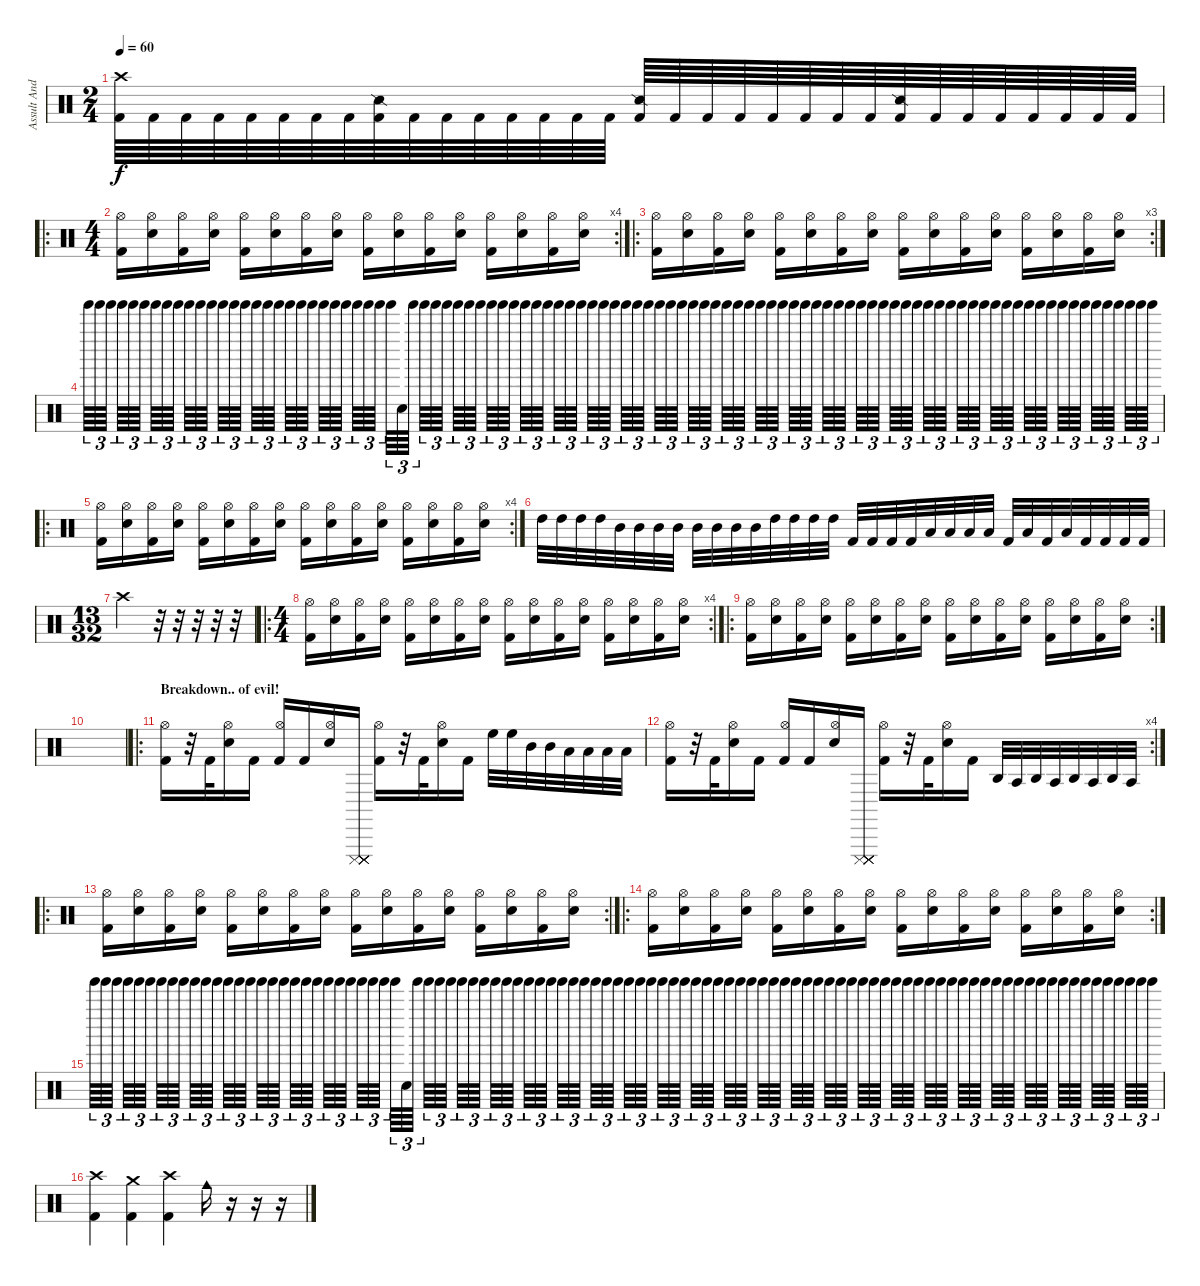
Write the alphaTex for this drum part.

\track ("Assult And Battery" "Assult And") {instrument percussion}
\staff {score}
\articulation defaults
\ts (2 4)
\tempo 60
\clef neutral
\ks c
("Crash high (hit)" "Kick (hit) 2").64{dy f} "Kick (hit) 2".64 "Kick (hit) 2".64 "Kick (hit) 2".64 "Kick (hit) 2".64 "Kick (hit) 2".64 "Kick (hit) 2".64 "Kick (hit) 2".64 ("Snare (side stick) 2" "Kick (hit) 2").64 "Kick (hit) 2".64 "Kick (hit) 2".64 "Kick (hit) 2".64 "Kick (hit) 2".64 "Kick (hit) 2".64 "Kick (hit) 2".64 "Kick (hit) 2".64 ("Snare (side stick) 2" "Kick (hit) 2").64 "Kick (hit) 2".64 "Kick (hit) 2".64 "Kick (hit) 2".64 "Kick (hit) 2".64 "Kick (hit) 2".64 "Kick (hit) 2".64 "Kick (hit) 2".64 ("Snare (side stick) 2" "Kick (hit) 2").64 "Kick (hit) 2".64 "Kick (hit) 2".64 "Kick (hit) 2".64 "Kick (hit) 2".64 "Kick (hit) 2".64 "Kick (hit) 2".64 "Kick (hit) 2".64 |
\ro
\rc 4
\ts (4 4)
("Hi-Hat (open)" "Kick (hit) 2").16 ("Hi-Hat (open)" "Snare (hit) 2").16 ("Hi-Hat (open)" "Kick (hit) 2").16 ("Hi-Hat (open)" "Snare (hit) 2").16 ("Hi-Hat (open)" "Kick (hit) 2").16 ("Hi-Hat (open)" "Snare (hit) 2").16 ("Hi-Hat (open)" "Kick (hit) 2").16 ("Hi-Hat (open)" "Snare (hit) 2").16 ("Hi-Hat (open)" "Kick (hit) 2").16 ("Hi-Hat (open)" "Snare (hit) 2").16 ("Hi-Hat (open)" "Kick (hit) 2").16 ("Hi-Hat (open)" "Snare (hit) 2").16 ("Hi-Hat (open)" "Kick (hit) 2").16 ("Hi-Hat (open)" "Snare (hit) 2").16 ("Hi-Hat (open)" "Kick (hit) 2").16 ("Hi-Hat (open)" "Snare (hit) 2").16 |
\ro
\rc 3
("Hi-Hat (open)" "Kick (hit) 2").16 ("Hi-Hat (open)" "Snare (hit) 2").16 ("Hi-Hat (open)" "Kick (hit) 2").16 ("Hi-Hat (open)" "Snare (hit) 2").16 ("Hi-Hat (open)" "Kick (hit) 2").16 ("Hi-Hat (open)" "Snare (hit) 2").16 ("Hi-Hat (open)" "Kick (hit) 2").16 ("Hi-Hat (open)" "Snare (hit) 2").16 ("Hi-Hat (open)" "Kick (hit) 2").16 ("Hi-Hat (open)" "Snare (hit) 2").16 ("Hi-Hat (open)" "Kick (hit) 2").16 ("Hi-Hat (open)" "Snare (hit) 2").16 ("Hi-Hat (open)" "Kick (hit) 2").16 ("Hi-Hat (open)" "Snare (hit) 2").16 ("Hi-Hat (open)" "Kick (hit) 2").16 ("Hi-Hat (open)" "Snare (hit) 2").16 |
"Tinkle Bell (hit)".64{tu (3 2)} "Tinkle Bell (hit)".64{tu (3 2)} "Tinkle Bell (hit)".64{tu (3 2)} "Tinkle Bell (hit)".64{tu (3 2)} "Tinkle Bell (hit)".64{tu (3 2)} "Tinkle Bell (hit)".64{tu (3 2)} "Tinkle Bell (hit)".64{tu (3 2)} "Tinkle Bell (hit)".64{tu (3 2)} "Tinkle Bell (hit)".64{tu (3 2)} "Tinkle Bell (hit)".64{tu (3 2)} "Tinkle Bell (hit)".64{tu (3 2)} "Tinkle Bell (hit)".64{tu (3 2)} "Tinkle Bell (hit)".64{tu (3 2)} "Tinkle Bell (hit)".64{tu (3 2)} "Tinkle Bell (hit)".64{tu (3 2)} "Tinkle Bell (hit)".64{tu (3 2)} "Tinkle Bell (hit)".64{tu (3 2)} "Tinkle Bell (hit)".64{tu (3 2)} "Tinkle Bell (hit)".64{tu (3 2)} "Tinkle Bell (hit)".64{tu (3 2)} "Tinkle Bell (hit)".64{tu (3 2)} "Tinkle Bell (hit)".64{tu (3 2)} "Tinkle Bell (hit)".64{tu (3 2)} "Tinkle Bell (hit)".64{tu (3 2)} "Tinkle Bell (hit)".64{tu (3 2)} "Tinkle Bell (hit)".64{tu (3 2)} "Tinkle Bell (hit)".64{tu (3 2)} "Tinkle Bell (hit)".64{tu (3 2)} "Snare (hit)".64{tu (3 2)} "Tinkle Bell (hit)".64{tu (3 2)} "Tinkle Bell (hit)".64{tu (3 2)} "Tinkle Bell (hit)".64{tu (3 2)} "Tinkle Bell (hit)".64{tu (3 2)} "Tinkle Bell (hit)".64{tu (3 2)} "Tinkle Bell (hit)".64{tu (3 2)} "Tinkle Bell (hit)".64{tu (3 2)} "Tinkle Bell (hit)".64{tu (3 2)} "Tinkle Bell (hit)".64{tu (3 2)} "Tinkle Bell (hit)".64{tu (3 2)} "Tinkle Bell (hit)".64{tu (3 2)} "Tinkle Bell (hit)".64{tu (3 2)} "Tinkle Bell (hit)".64{tu (3 2)} "Tinkle Bell (hit)".64{tu (3 2)} "Tinkle Bell (hit)".64{tu (3 2)} "Tinkle Bell (hit)".64{tu (3 2)} "Tinkle Bell (hit)".64{tu (3 2)} "Tinkle Bell (hit)".64{tu (3 2)} "Tinkle Bell (hit)".64{tu (3 2)} "Tinkle Bell (hit)".64{tu (3 2)} "Tinkle Bell (hit)".64{tu (3 2)} "Tinkle Bell (hit)".64{tu (3 2)} "Tinkle Bell (hit)".64{tu (3 2)} "Tinkle Bell (hit)".64{tu (3 2)} "Tinkle Bell (hit)".64{tu (3 2)} "Tinkle Bell (hit)".64{tu (3 2)} "Tinkle Bell (hit)".64{tu (3 2)} "Tinkle Bell (hit)".64{tu (3 2)} "Tinkle Bell (hit)".64{tu (3 2)} "Tinkle Bell (hit)".64{tu (3 2)} "Tinkle Bell (hit)".64{tu (3 2)} "Tinkle Bell (hit)".64{tu (3 2)} "Tinkle Bell (hit)".64{tu (3 2)} "Tinkle Bell (hit)".64{tu (3 2)} "Tinkle Bell (hit)".64{tu (3 2)} "Tinkle Bell (hit)".64{tu (3 2)} "Tinkle Bell (hit)".64{tu (3 2)} "Tinkle Bell (hit)".64{tu (3 2)} "Tinkle Bell (hit)".64{tu (3 2)} "Tinkle Bell (hit)".64{tu (3 2)} "Tinkle Bell (hit)".64{tu (3 2)} "Tinkle Bell (hit)".64{tu (3 2)} "Tinkle Bell (hit)".64{tu (3 2)} "Tinkle Bell (hit)".64{tu (3 2)} "Tinkle Bell (hit)".64{tu (3 2)} "Tinkle Bell (hit)".64{tu (3 2)} "Tinkle Bell (hit)".64{tu (3 2)} "Tinkle Bell (hit)".64{tu (3 2)} "Tinkle Bell (hit)".64{tu (3 2)} "Tinkle Bell (hit)".64{tu (3 2)} "Tinkle Bell (hit)".64{tu (3 2)} "Tinkle Bell (hit)".64{tu (3 2)} "Tinkle Bell (hit)".64{tu (3 2)} "Tinkle Bell (hit)".64{tu (3 2)} "Tinkle Bell (hit)".64{tu (3 2)} "Tinkle Bell (hit)".64{tu (3 2)} "Tinkle Bell (hit)".64{tu (3 2)} "Tinkle Bell (hit)".64{tu (3 2)} "Tinkle Bell (hit)".64{tu (3 2)} "Tinkle Bell (hit)".64{tu (3 2)} "Tinkle Bell (hit)".64{tu (3 2)} "Tinkle Bell (hit)".64{tu (3 2)} "Tinkle Bell (hit)".64{tu (3 2)} "Tinkle Bell (hit)".64{tu (3 2)} "Tinkle Bell (hit)".64{tu (3 2)} "Tinkle Bell (hit)".64{tu (3 2)} "Tinkle Bell (hit)".64{tu (3 2)} |
\ro
\rc 4
("Hi-Hat (open)" "Kick (hit) 2").16 ("Hi-Hat (open)" "Snare (hit) 2").16 ("Hi-Hat (open)" "Kick (hit) 2").16 ("Hi-Hat (open)" "Snare (hit) 2").16 ("Hi-Hat (open)" "Kick (hit) 2").16 ("Hi-Hat (open)" "Snare (hit) 2").16 ("Hi-Hat (open)" "Kick (hit) 2").16 ("Hi-Hat (open)" "Snare (hit) 2").16 ("Hi-Hat (open)" "Kick (hit) 2").16 ("Hi-Hat (open)" "Snare (hit) 2").16 ("Hi-Hat (open)" "Kick (hit) 2").16 ("Hi-Hat (open)" "Snare (hit) 2").16 ("Hi-Hat (open)" "Kick (hit) 2").16 ("Hi-Hat (open)" "Snare (hit) 2").16 ("Hi-Hat (open)" "Kick (hit) 2").16 ("Hi-Hat (open)" "Snare (hit) 2").16 |
"High Tom (hit)".32 "High Tom (hit)".32 "High Tom (hit)".32 "High Tom (hit)".32 "Mid Tom (hit)".32 "Mid Tom (hit)".32 "Mid Tom (hit)".32 "Mid Tom (hit)".32 "Mid Tom (hit)".32 "Mid Tom (hit)".32 "Mid Tom (hit)".32 "Mid Tom (hit)".32 "High Tom (hit)".32 "High Tom (hit)".32 "High Tom (hit)".32 "High Tom (hit)".32 "Kick (hit) 2".32 "Kick (hit) 2".32 "Kick (hit) 2".32 "Kick (hit) 2".32 "Low Tom (hit)".32 "Low Tom (hit)".32 "Low Tom (hit)".32 "Low Tom (hit)".32 "Kick (hit) 2".32 "Low Tom (hit)".32 "Kick (hit) 2".32 "Low Tom (hit)".32 "Kick (hit) 2".32 "Kick (hit) 2".32 "Kick (hit) 2".32 "Kick (hit) 2".32 |
\ts (13 32)
"Crash high (hit)".4 r.32 r.32 r.32 r.32 r.32 |
\ro
\rc 4
\ts (4 4)
("Hi-Hat (open)" "Kick (hit) 2").16 ("Hi-Hat (open)" "Snare (hit) 2").16 ("Hi-Hat (open)" "Kick (hit) 2").16 ("Hi-Hat (open)" "Snare (hit) 2").16 ("Hi-Hat (open)" "Kick (hit) 2").16 ("Hi-Hat (open)" "Snare (hit) 2").16 ("Hi-Hat (open)" "Kick (hit) 2").16 ("Hi-Hat (open)" "Snare (hit) 2").16 ("Hi-Hat (open)" "Kick (hit) 2").16 ("Hi-Hat (open)" "Snare (hit) 2").16 ("Hi-Hat (open)" "Kick (hit) 2").16 ("Hi-Hat (open)" "Snare (hit) 2").16 ("Hi-Hat (open)" "Kick (hit) 2").16 ("Hi-Hat (open)" "Snare (hit) 2").16 ("Hi-Hat (open)" "Kick (hit) 2").16 ("Hi-Hat (open)" "Snare (hit) 2").16 |
\ro
\rc 2
("Hi-Hat (open)" "Kick (hit) 2").16 ("Hi-Hat (open)" "Snare (hit) 2").16 ("Hi-Hat (open)" "Kick (hit) 2").16 ("Hi-Hat (open)" "Snare (hit) 2").16 ("Hi-Hat (open)" "Kick (hit) 2").16 ("Hi-Hat (open)" "Snare (hit) 2").16 ("Hi-Hat (open)" "Kick (hit) 2").16 ("Hi-Hat (open)" "Snare (hit) 2").16 ("Hi-Hat (open)" "Kick (hit) 2").16 ("Hi-Hat (open)" "Snare (hit) 2").16 ("Hi-Hat (open)" "Kick (hit) 2").16 ("Hi-Hat (open)" "Snare (hit) 2").16 ("Hi-Hat (open)" "Kick (hit) 2").16 ("Hi-Hat (open)" "Snare (hit) 2").16 ("Hi-Hat (open)" "Kick (hit) 2").16 ("Hi-Hat (open)" "Snare (hit) 2").16 |
|
\ro
\section ("" "Breakdown.. of evil!")
("Hi-Hat (open)" "Kick (hit) 2").16 r.32 "Kick (hit) 2".32 ("Hi-Hat (open)" "Snare (hit) 2").16 "Kick (hit) 2".16 ("Hi-Hat (open)" "Kick (hit) 2").16 "Kick (hit) 2".16 ("Hi-Hat (open)" "Snare (hit) 2").16 ("Cuica (mute)" "Cuica (mute)" "Cuica (mute)" "Cuica (mute)" "Cuica (mute)" "Cuica (mute)").16 ("Hi-Hat (open)" "Kick (hit) 2").16 r.32 "Kick (hit) 2".32 ("Hi-Hat (open)" "Snare (hit) 2").16 "Kick (hit) 2".16 "High Floor Tom (hit)".32 "High Floor Tom (hit)".32 "Mid Tom (hit)".32 "Mid Tom (hit)".32 "Low Tom (hit)".32 "Low Tom (hit)".32 "Low Floor Tom (hit)".32 "Low Floor Tom (hit)".32 |
\rc 4
("Hi-Hat (open)" "Kick (hit) 2").16 r.32 "Kick (hit) 2".32 ("Hi-Hat (open)" "Snare (hit) 2").16 "Kick (hit) 2".16 ("Hi-Hat (open)" "Kick (hit) 2").16 "Kick (hit) 2".16 ("Hi-Hat (open)" "Snare (hit) 2").16 ("Cuica (mute)" "Cuica (mute)" "Cuica (mute)" "Cuica (mute)" "Cuica (mute)" "Cuica (mute)").16 ("Hi-Hat (open)" "Kick (hit) 2").16 r.32 "Kick (hit) 2".32 ("Hi-Hat (open)" "Snare (hit) 2").16 "Kick (hit) 2".16 "Agogo high (hit)".32 "Agogo tow (hit)".32 "Agogo high (hit)".32 "Agogo tow (hit)".32 "Agogo high (hit)".32 "Agogo tow (hit)".32 "Agogo high (hit)".32 "Agogo tow (hit)".32 |
\ro
\rc 2
("Hi-Hat (open)" "Kick (hit) 2").16 ("Hi-Hat (open)" "Snare (hit) 2").16 ("Hi-Hat (open)" "Kick (hit) 2").16 ("Hi-Hat (open)" "Snare (hit) 2").16 ("Hi-Hat (open)" "Kick (hit) 2").16 ("Hi-Hat (open)" "Snare (hit) 2").16 ("Hi-Hat (open)" "Kick (hit) 2").16 ("Hi-Hat (open)" "Snare (hit) 2").16 ("Hi-Hat (open)" "Kick (hit) 2").16 ("Hi-Hat (open)" "Snare (hit) 2").16 ("Hi-Hat (open)" "Kick (hit) 2").16 ("Hi-Hat (open)" "Snare (hit) 2").16 ("Hi-Hat (open)" "Kick (hit) 2").16 ("Hi-Hat (open)" "Snare (hit) 2").16 ("Hi-Hat (open)" "Kick (hit) 2").16 ("Hi-Hat (open)" "Snare (hit) 2").16 |
\ro
\rc 2
("Hi-Hat (open)" "Kick (hit) 2").16 ("Hi-Hat (open)" "Snare (hit) 2").16 ("Hi-Hat (open)" "Kick (hit) 2").16 ("Hi-Hat (open)" "Snare (hit) 2").16 ("Hi-Hat (open)" "Kick (hit) 2").16 ("Hi-Hat (open)" "Snare (hit) 2").16 ("Hi-Hat (open)" "Kick (hit) 2").16 ("Hi-Hat (open)" "Snare (hit) 2").16 ("Hi-Hat (open)" "Kick (hit) 2").16 ("Hi-Hat (open)" "Snare (hit) 2").16 ("Hi-Hat (open)" "Kick (hit) 2").16 ("Hi-Hat (open)" "Snare (hit) 2").16 ("Hi-Hat (open)" "Kick (hit) 2").16 ("Hi-Hat (open)" "Snare (hit) 2").16 ("Hi-Hat (open)" "Kick (hit) 2").16 ("Hi-Hat (open)" "Snare (hit) 2").16 |
"Tinkle Bell (hit)".64{tu (3 2)} "Tinkle Bell (hit)".64{tu (3 2)} "Tinkle Bell (hit)".64{tu (3 2)} "Tinkle Bell (hit)".64{tu (3 2)} "Tinkle Bell (hit)".64{tu (3 2)} "Tinkle Bell (hit)".64{tu (3 2)} "Tinkle Bell (hit)".64{tu (3 2)} "Tinkle Bell (hit)".64{tu (3 2)} "Tinkle Bell (hit)".64{tu (3 2)} "Tinkle Bell (hit)".64{tu (3 2)} "Tinkle Bell (hit)".64{tu (3 2)} "Tinkle Bell (hit)".64{tu (3 2)} "Tinkle Bell (hit)".64{tu (3 2)} "Tinkle Bell (hit)".64{tu (3 2)} "Tinkle Bell (hit)".64{tu (3 2)} "Tinkle Bell (hit)".64{tu (3 2)} "Tinkle Bell (hit)".64{tu (3 2)} "Tinkle Bell (hit)".64{tu (3 2)} "Tinkle Bell (hit)".64{tu (3 2)} "Tinkle Bell (hit)".64{tu (3 2)} "Tinkle Bell (hit)".64{tu (3 2)} "Tinkle Bell (hit)".64{tu (3 2)} "Tinkle Bell (hit)".64{tu (3 2)} "Tinkle Bell (hit)".64{tu (3 2)} "Tinkle Bell (hit)".64{tu (3 2)} "Tinkle Bell (hit)".64{tu (3 2)} "Tinkle Bell (hit)".64{tu (3 2)} "Tinkle Bell (hit)".64{tu (3 2)} "Snare (hit)".64{tu (3 2)} "Tinkle Bell (hit)".64{tu (3 2)} "Tinkle Bell (hit)".64{tu (3 2)} "Tinkle Bell (hit)".64{tu (3 2)} "Tinkle Bell (hit)".64{tu (3 2)} "Tinkle Bell (hit)".64{tu (3 2)} "Tinkle Bell (hit)".64{tu (3 2)} "Tinkle Bell (hit)".64{tu (3 2)} "Tinkle Bell (hit)".64{tu (3 2)} "Tinkle Bell (hit)".64{tu (3 2)} "Tinkle Bell (hit)".64{tu (3 2)} "Tinkle Bell (hit)".64{tu (3 2)} "Tinkle Bell (hit)".64{tu (3 2)} "Tinkle Bell (hit)".64{tu (3 2)} "Tinkle Bell (hit)".64{tu (3 2)} "Tinkle Bell (hit)".64{tu (3 2)} "Tinkle Bell (hit)".64{tu (3 2)} "Tinkle Bell (hit)".64{tu (3 2)} "Tinkle Bell (hit)".64{tu (3 2)} "Tinkle Bell (hit)".64{tu (3 2)} "Tinkle Bell (hit)".64{tu (3 2)} "Tinkle Bell (hit)".64{tu (3 2)} "Tinkle Bell (hit)".64{tu (3 2)} "Tinkle Bell (hit)".64{tu (3 2)} "Tinkle Bell (hit)".64{tu (3 2)} "Tinkle Bell (hit)".64{tu (3 2)} "Tinkle Bell (hit)".64{tu (3 2)} "Tinkle Bell (hit)".64{tu (3 2)} "Tinkle Bell (hit)".64{tu (3 2)} "Tinkle Bell (hit)".64{tu (3 2)} "Tinkle Bell (hit)".64{tu (3 2)} "Tinkle Bell (hit)".64{tu (3 2)} "Tinkle Bell (hit)".64{tu (3 2)} "Tinkle Bell (hit)".64{tu (3 2)} "Tinkle Bell (hit)".64{tu (3 2)} "Tinkle Bell (hit)".64{tu (3 2)} "Tinkle Bell (hit)".64{tu (3 2)} "Tinkle Bell (hit)".64{tu (3 2)} "Tinkle Bell (hit)".64{tu (3 2)} "Tinkle Bell (hit)".64{tu (3 2)} "Tinkle Bell (hit)".64{tu (3 2)} "Tinkle Bell (hit)".64{tu (3 2)} "Tinkle Bell (hit)".64{tu (3 2)} "Tinkle Bell (hit)".64{tu (3 2)} "Tinkle Bell (hit)".64{tu (3 2)} "Tinkle Bell (hit)".64{tu (3 2)} "Tinkle Bell (hit)".64{tu (3 2)} "Tinkle Bell (hit)".64{tu (3 2)} "Tinkle Bell (hit)".64{tu (3 2)} "Tinkle Bell (hit)".64{tu (3 2)} "Tinkle Bell (hit)".64{tu (3 2)} "Tinkle Bell (hit)".64{tu (3 2)} "Tinkle Bell (hit)".64{tu (3 2)} "Tinkle Bell (hit)".64{tu (3 2)} "Tinkle Bell (hit)".64{tu (3 2)} "Tinkle Bell (hit)".64{tu (3 2)} "Tinkle Bell (hit)".64{tu (3 2)} "Tinkle Bell (hit)".64{tu (3 2)} "Tinkle Bell (hit)".64{tu (3 2)} "Tinkle Bell (hit)".64{tu (3 2)} "Tinkle Bell (hit)".64{tu (3 2)} "Tinkle Bell (hit)".64{tu (3 2)} "Tinkle Bell (hit)".64{tu (3 2)} "Tinkle Bell (hit)".64{tu (3 2)} "Tinkle Bell (hit)".64{tu (3 2)} "Tinkle Bell (hit)".64{tu (3 2)} "Tinkle Bell (hit)".64{tu (3 2)} "Tinkle Bell (hit)".64{tu (3 2)} |
("Crash high (hit)" "Kick (hit) 2").4 ("Crash medium (hit)" "Kick (hit) 2").4 ("Crash high (hit)" "Kick (hit) 2").4 "Cowbell medium (hit)".16 r.16 r.16 r.16
